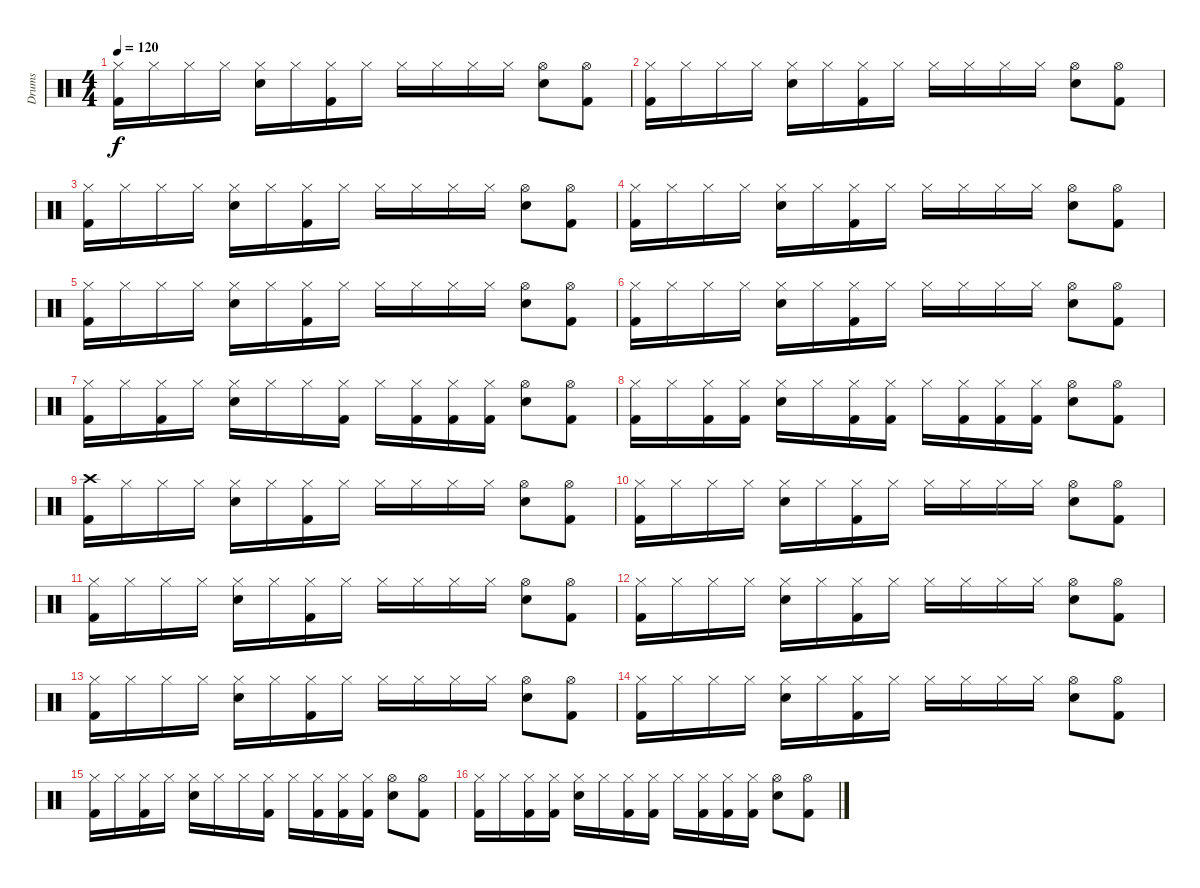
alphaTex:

\track ("Drums" "Drums") {instrument percussion}
\staff {score}
\articulation defaults
\ts (4 4)
\tempo 120
\clef neutral
\ks c
("Hi-Hat (closed)" "Kick (hit) 2").16{dy f} "Hi-Hat (closed)".16 "Hi-Hat (closed)".16 "Hi-Hat (closed)".16 ("Hi-Hat (closed)" "Snare (hit) 2").16 "Hi-Hat (closed)".16 ("Hi-Hat (closed)" "Kick (hit) 2").16 "Hi-Hat (closed)".16 "Hi-Hat (closed)".16 "Hi-Hat (closed)".16 "Hi-Hat (closed)".16 "Hi-Hat (closed)".16 ("Hi-Hat (open)" "Snare (hit) 2").8 ("Hi-Hat (open)" "Kick (hit) 2").8 |
("Hi-Hat (closed)" "Kick (hit) 2").16 "Hi-Hat (closed)".16 "Hi-Hat (closed)".16 "Hi-Hat (closed)".16 ("Hi-Hat (closed)" "Snare (hit) 2").16 "Hi-Hat (closed)".16 ("Hi-Hat (closed)" "Kick (hit) 2").16 "Hi-Hat (closed)".16 "Hi-Hat (closed)".16 "Hi-Hat (closed)".16 "Hi-Hat (closed)".16 "Hi-Hat (closed)".16 ("Hi-Hat (open)" "Snare (hit) 2").8 ("Hi-Hat (open)" "Kick (hit) 2").8 |
("Hi-Hat (closed)" "Kick (hit) 2").16 "Hi-Hat (closed)".16 "Hi-Hat (closed)".16 "Hi-Hat (closed)".16 ("Hi-Hat (closed)" "Snare (hit) 2").16 "Hi-Hat (closed)".16 ("Hi-Hat (closed)" "Kick (hit) 2").16 "Hi-Hat (closed)".16 "Hi-Hat (closed)".16 "Hi-Hat (closed)".16 "Hi-Hat (closed)".16 "Hi-Hat (closed)".16 ("Hi-Hat (open)" "Snare (hit) 2").8 ("Hi-Hat (open)" "Kick (hit) 2").8 |
("Hi-Hat (closed)" "Kick (hit) 2").16 "Hi-Hat (closed)".16 "Hi-Hat (closed)".16 "Hi-Hat (closed)".16 ("Hi-Hat (closed)" "Snare (hit) 2").16 "Hi-Hat (closed)".16 ("Hi-Hat (closed)" "Kick (hit) 2").16 "Hi-Hat (closed)".16 "Hi-Hat (closed)".16 "Hi-Hat (closed)".16 "Hi-Hat (closed)".16 "Hi-Hat (closed)".16 ("Hi-Hat (open)" "Snare (hit) 2").8 ("Hi-Hat (open)" "Kick (hit) 2").8 |
("Hi-Hat (closed)" "Kick (hit) 2").16 "Hi-Hat (closed)".16 "Hi-Hat (closed)".16 "Hi-Hat (closed)".16 ("Hi-Hat (closed)" "Snare (hit) 2").16 "Hi-Hat (closed)".16 ("Hi-Hat (closed)" "Kick (hit) 2").16 "Hi-Hat (closed)".16 "Hi-Hat (closed)".16 "Hi-Hat (closed)".16 "Hi-Hat (closed)".16 "Hi-Hat (closed)".16 ("Hi-Hat (open)" "Snare (hit) 2").8 ("Hi-Hat (open)" "Kick (hit) 2").8 |
("Hi-Hat (closed)" "Kick (hit) 2").16 "Hi-Hat (closed)".16 "Hi-Hat (closed)".16 "Hi-Hat (closed)".16 ("Hi-Hat (closed)" "Snare (hit) 2").16 "Hi-Hat (closed)".16 ("Hi-Hat (closed)" "Kick (hit) 2").16 "Hi-Hat (closed)".16 "Hi-Hat (closed)".16 "Hi-Hat (closed)".16 "Hi-Hat (closed)".16 "Hi-Hat (closed)".16 ("Hi-Hat (open)" "Snare (hit) 2").8 ("Hi-Hat (open)" "Kick (hit) 2").8 |
("Hi-Hat (closed)" "Kick (hit) 2").16 "Hi-Hat (closed)".16 ("Hi-Hat (closed)" "Kick (hit) 2").16 "Hi-Hat (closed)".16 ("Hi-Hat (closed)" "Snare (hit) 2").16 "Hi-Hat (closed)".16 "Hi-Hat (closed)".16 ("Hi-Hat (closed)" "Kick (hit) 2").16 "Hi-Hat (closed)".16 ("Hi-Hat (closed)" "Kick (hit) 2").16 ("Hi-Hat (closed)" "Kick (hit) 2").16 ("Hi-Hat (closed)" "Kick (hit) 2").16 ("Hi-Hat (open)" "Snare (hit) 2").8 ("Hi-Hat (open)" "Kick (hit) 2").8 |
("Hi-Hat (closed)" "Kick (hit) 2").16 "Hi-Hat (closed)".16 ("Hi-Hat (closed)" "Kick (hit) 2").16 ("Hi-Hat (closed)" "Kick (hit) 2").16 ("Hi-Hat (closed)" "Snare (hit) 2").16 "Hi-Hat (closed)".16 ("Hi-Hat (closed)" "Kick (hit) 2").16 ("Hi-Hat (closed)" "Kick (hit) 2").16 "Hi-Hat (closed)".16 ("Hi-Hat (closed)" "Kick (hit) 2").16 ("Hi-Hat (closed)" "Kick (hit) 2").16 ("Hi-Hat (closed)" "Kick (hit) 2").16 ("Hi-Hat (open)" "Snare (hit) 2").8 ("Hi-Hat (open)" "Kick (hit) 2").8 |
("Crash high (hit)" "Kick (hit) 2").16 "Hi-Hat (closed)".16 "Hi-Hat (closed)".16 "Hi-Hat (closed)".16 ("Hi-Hat (closed)" "Snare (hit) 2").16 "Hi-Hat (closed)".16 ("Hi-Hat (closed)" "Kick (hit) 2").16 "Hi-Hat (closed)".16 "Hi-Hat (closed)".16 "Hi-Hat (closed)".16 "Hi-Hat (closed)".16 "Hi-Hat (closed)".16 ("Hi-Hat (open)" "Snare (hit) 2").8 ("Hi-Hat (open)" "Kick (hit) 2").8 |
("Hi-Hat (closed)" "Kick (hit) 2").16 "Hi-Hat (closed)".16 "Hi-Hat (closed)".16 "Hi-Hat (closed)".16 ("Hi-Hat (closed)" "Snare (hit) 2").16 "Hi-Hat (closed)".16 ("Hi-Hat (closed)" "Kick (hit) 2").16 "Hi-Hat (closed)".16 "Hi-Hat (closed)".16 "Hi-Hat (closed)".16 "Hi-Hat (closed)".16 "Hi-Hat (closed)".16 ("Hi-Hat (open)" "Snare (hit) 2").8 ("Hi-Hat (open)" "Kick (hit) 2").8 |
("Hi-Hat (closed)" "Kick (hit) 2").16 "Hi-Hat (closed)".16 "Hi-Hat (closed)".16 "Hi-Hat (closed)".16 ("Hi-Hat (closed)" "Snare (hit) 2").16 "Hi-Hat (closed)".16 ("Hi-Hat (closed)" "Kick (hit) 2").16 "Hi-Hat (closed)".16 "Hi-Hat (closed)".16 "Hi-Hat (closed)".16 "Hi-Hat (closed)".16 "Hi-Hat (closed)".16 ("Hi-Hat (open)" "Snare (hit) 2").8 ("Hi-Hat (open)" "Kick (hit) 2").8 |
("Hi-Hat (closed)" "Kick (hit) 2").16 "Hi-Hat (closed)".16 "Hi-Hat (closed)".16 "Hi-Hat (closed)".16 ("Hi-Hat (closed)" "Snare (hit) 2").16 "Hi-Hat (closed)".16 ("Hi-Hat (closed)" "Kick (hit) 2").16 "Hi-Hat (closed)".16 "Hi-Hat (closed)".16 "Hi-Hat (closed)".16 "Hi-Hat (closed)".16 "Hi-Hat (closed)".16 ("Hi-Hat (open)" "Snare (hit) 2").8 ("Hi-Hat (open)" "Kick (hit) 2").8 |
("Hi-Hat (closed)" "Kick (hit) 2").16 "Hi-Hat (closed)".16 "Hi-Hat (closed)".16 "Hi-Hat (closed)".16 ("Hi-Hat (closed)" "Snare (hit) 2").16 "Hi-Hat (closed)".16 ("Hi-Hat (closed)" "Kick (hit) 2").16 "Hi-Hat (closed)".16 "Hi-Hat (closed)".16 "Hi-Hat (closed)".16 "Hi-Hat (closed)".16 "Hi-Hat (closed)".16 ("Hi-Hat (open)" "Snare (hit) 2").8 ("Hi-Hat (open)" "Kick (hit) 2").8 |
("Hi-Hat (closed)" "Kick (hit) 2").16 "Hi-Hat (closed)".16 "Hi-Hat (closed)".16 "Hi-Hat (closed)".16 ("Hi-Hat (closed)" "Snare (hit) 2").16 "Hi-Hat (closed)".16 ("Hi-Hat (closed)" "Kick (hit) 2").16 "Hi-Hat (closed)".16 "Hi-Hat (closed)".16 "Hi-Hat (closed)".16 "Hi-Hat (closed)".16 "Hi-Hat (closed)".16 ("Hi-Hat (open)" "Snare (hit) 2").8 ("Hi-Hat (open)" "Kick (hit) 2").8 |
("Hi-Hat (closed)" "Kick (hit) 2").16 "Hi-Hat (closed)".16 ("Hi-Hat (closed)" "Kick (hit) 2").16 "Hi-Hat (closed)".16 ("Hi-Hat (closed)" "Snare (hit) 2").16 "Hi-Hat (closed)".16 "Hi-Hat (closed)".16 ("Hi-Hat (closed)" "Kick (hit) 2").16 "Hi-Hat (closed)".16 ("Hi-Hat (closed)" "Kick (hit) 2").16 ("Hi-Hat (closed)" "Kick (hit) 2").16 ("Hi-Hat (closed)" "Kick (hit) 2").16 ("Hi-Hat (open)" "Snare (hit) 2").8 ("Hi-Hat (open)" "Kick (hit) 2").8 |
("Hi-Hat (closed)" "Kick (hit) 2").16 "Hi-Hat (closed)".16 ("Hi-Hat (closed)" "Kick (hit) 2").16 ("Hi-Hat (closed)" "Kick (hit) 2").16 ("Hi-Hat (closed)" "Snare (hit) 2").16 "Hi-Hat (closed)".16 ("Hi-Hat (closed)" "Kick (hit) 2").16 ("Hi-Hat (closed)" "Kick (hit) 2").16 "Hi-Hat (closed)".16 ("Hi-Hat (closed)" "Kick (hit) 2").16 ("Hi-Hat (closed)" "Kick (hit) 2").16 ("Hi-Hat (closed)" "Kick (hit) 2").16 ("Hi-Hat (open)" "Snare (hit) 2").8 ("Hi-Hat (open)" "Kick (hit) 2").8
